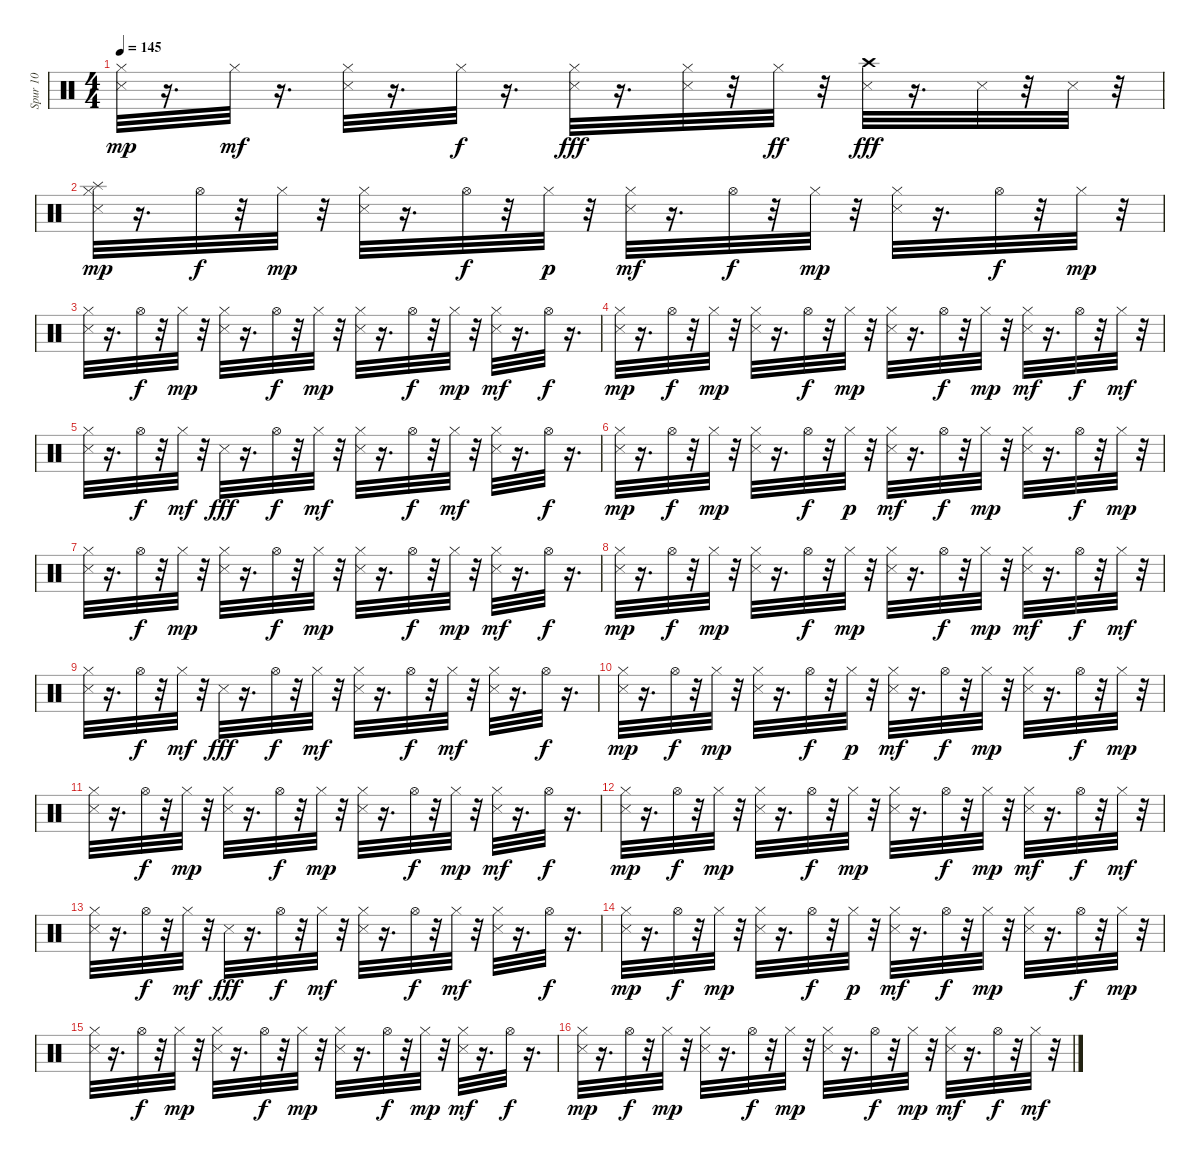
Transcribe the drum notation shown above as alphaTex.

\track ("Spur 10" "Spur 10") {instrument percussion}
\staff {score}
\articulation defaults
\ts (4 4)
\tempo 145
\clef neutral
\ks c
("Metronome (hit)" "Hi-Hat (closed)").32{dy mp} r.16{d} "Hi-Hat (closed)".32{dy mf} r.16{d} ("Metronome (hit)" "Hi-Hat (closed)").32 r.16{d} "Hi-Hat (closed)".32{dy f} r.16{d} ("Metronome (hit)" "Hi-Hat (closed)").32{dy fff} r.16{d} ("Metronome (hit)" "Hi-Hat (closed)").32 r.32 "Hi-Hat (closed)".32{dy ff} r.32 ("Metronome (hit)" "Crash high (hit)").32{dy fff} r.16{d} "Metronome (hit)".32 r.32 "Metronome (hit)".32 r.32 |
("Splash (hit)" "Metronome (hit)" "Hi-Hat (closed)").32{dy mp} r.16{d} "Hi-Hat (open)".32{dy f} r.32 "Hi-Hat (closed)".32{dy mp} r.32 ("Metronome (hit)" "Hi-Hat (closed)").32 r.16{d} "Hi-Hat (open)".32{dy f} r.32 "Hi-Hat (closed)".32{dy p} r.32 ("Metronome (hit)" "Hi-Hat (closed)").32{dy mf} r.16{d} "Hi-Hat (open)".32{dy f} r.32 "Hi-Hat (closed)".32{dy mp} r.32 ("Metronome (hit)" "Hi-Hat (closed)").32 r.16{d} "Hi-Hat (open)".32{dy f} r.32 "Hi-Hat (closed)".32{dy mp} r.32 |
("Metronome (hit)" "Hi-Hat (closed)").32 r.16{d} "Hi-Hat (open)".32{dy f} r.32 "Hi-Hat (closed)".32{dy mp} r.32 ("Metronome (hit)" "Hi-Hat (closed)").32 r.16{d} "Hi-Hat (open)".32{dy f} r.32 "Hi-Hat (closed)".32{dy mp} r.32 ("Metronome (hit)" "Hi-Hat (closed)").32 r.16{d} "Hi-Hat (open)".32{dy f} r.32 "Hi-Hat (closed)".32{dy mp} r.32 ("Metronome (hit)" "Hi-Hat (closed)").32{dy mf} r.16{d} "Hi-Hat (open)".32{dy f} r.16{d} |
("Metronome (hit)" "Hi-Hat (closed)").32{dy mp} r.16{d} "Hi-Hat (open)".32{dy f} r.32 "Hi-Hat (closed)".32{dy mp} r.32 ("Metronome (hit)" "Hi-Hat (closed)").32 r.16{d} "Hi-Hat (open)".32{dy f} r.32 "Hi-Hat (closed)".32{dy mp} r.32 ("Metronome (hit)" "Hi-Hat (closed)").32 r.16{d} "Hi-Hat (open)".32{dy f} r.32 "Hi-Hat (closed)".32{dy mp} r.32 ("Metronome (hit)" "Hi-Hat (closed)").32{dy mf} r.16{d} "Hi-Hat (open)".32{dy f} r.32 "Hi-Hat (closed)".32{dy mf} r.32 |
("Metronome (hit)" "Hi-Hat (closed)").32 r.16{d} "Hi-Hat (open)".32{dy f} r.32 "Hi-Hat (closed)".32{dy mf} r.32 "Metronome (hit)".32{dy fff} r.16{d} "Hi-Hat (open)".32{dy f} r.32 "Hi-Hat (closed)".32{dy mf} r.32 ("Metronome (hit)" "Hi-Hat (closed)").32 r.16{d} "Hi-Hat (open)".32{dy f} r.32 "Hi-Hat (closed)".32{dy mf} r.32 ("Metronome (hit)" "Hi-Hat (closed)").32 r.16{d} "Hi-Hat (open)".32{dy f} r.16{d} |
("Metronome (hit)" "Hi-Hat (closed)").32{dy mp} r.16{d} "Hi-Hat (open)".32{dy f} r.32 "Hi-Hat (closed)".32{dy mp} r.32 ("Metronome (hit)" "Hi-Hat (closed)").32 r.16{d} "Hi-Hat (open)".32{dy f} r.32 "Hi-Hat (closed)".32{dy p} r.32 ("Metronome (hit)" "Hi-Hat (closed)").32{dy mf} r.16{d} "Hi-Hat (open)".32{dy f} r.32 "Hi-Hat (closed)".32{dy mp} r.32 ("Metronome (hit)" "Hi-Hat (closed)").32 r.16{d} "Hi-Hat (open)".32{dy f} r.32 "Hi-Hat (closed)".32{dy mp} r.32 |
("Metronome (hit)" "Hi-Hat (closed)").32 r.16{d} "Hi-Hat (open)".32{dy f} r.32 "Hi-Hat (closed)".32{dy mp} r.32 ("Metronome (hit)" "Hi-Hat (closed)").32 r.16{d} "Hi-Hat (open)".32{dy f} r.32 "Hi-Hat (closed)".32{dy mp} r.32 ("Metronome (hit)" "Hi-Hat (closed)").32 r.16{d} "Hi-Hat (open)".32{dy f} r.32 "Hi-Hat (closed)".32{dy mp} r.32 ("Metronome (hit)" "Hi-Hat (closed)").32{dy mf} r.16{d} "Hi-Hat (open)".32{dy f} r.16{d} |
("Metronome (hit)" "Hi-Hat (closed)").32{dy mp} r.16{d} "Hi-Hat (open)".32{dy f} r.32 "Hi-Hat (closed)".32{dy mp} r.32 ("Metronome (hit)" "Hi-Hat (closed)").32 r.16{d} "Hi-Hat (open)".32{dy f} r.32 "Hi-Hat (closed)".32{dy mp} r.32 ("Metronome (hit)" "Hi-Hat (closed)").32 r.16{d} "Hi-Hat (open)".32{dy f} r.32 "Hi-Hat (closed)".32{dy mp} r.32 ("Metronome (hit)" "Hi-Hat (closed)").32{dy mf} r.16{d} "Hi-Hat (open)".32{dy f} r.32 "Hi-Hat (closed)".32{dy mf} r.32 |
("Metronome (hit)" "Hi-Hat (closed)").32 r.16{d} "Hi-Hat (open)".32{dy f} r.32 "Hi-Hat (closed)".32{dy mf} r.32 "Metronome (hit)".32{dy fff} r.16{d} "Hi-Hat (open)".32{dy f} r.32 "Hi-Hat (closed)".32{dy mf} r.32 ("Metronome (hit)" "Hi-Hat (closed)").32 r.16{d} "Hi-Hat (open)".32{dy f} r.32 "Hi-Hat (closed)".32{dy mf} r.32 ("Metronome (hit)" "Hi-Hat (closed)").32 r.16{d} "Hi-Hat (open)".32{dy f} r.16{d} |
("Metronome (hit)" "Hi-Hat (closed)").32{dy mp} r.16{d} "Hi-Hat (open)".32{dy f} r.32 "Hi-Hat (closed)".32{dy mp} r.32 ("Metronome (hit)" "Hi-Hat (closed)").32 r.16{d} "Hi-Hat (open)".32{dy f} r.32 "Hi-Hat (closed)".32{dy p} r.32 ("Metronome (hit)" "Hi-Hat (closed)").32{dy mf} r.16{d} "Hi-Hat (open)".32{dy f} r.32 "Hi-Hat (closed)".32{dy mp} r.32 ("Metronome (hit)" "Hi-Hat (closed)").32 r.16{d} "Hi-Hat (open)".32{dy f} r.32 "Hi-Hat (closed)".32{dy mp} r.32 |
("Metronome (hit)" "Hi-Hat (closed)").32 r.16{d} "Hi-Hat (open)".32{dy f} r.32 "Hi-Hat (closed)".32{dy mp} r.32 ("Metronome (hit)" "Hi-Hat (closed)").32 r.16{d} "Hi-Hat (open)".32{dy f} r.32 "Hi-Hat (closed)".32{dy mp} r.32 ("Metronome (hit)" "Hi-Hat (closed)").32 r.16{d} "Hi-Hat (open)".32{dy f} r.32 "Hi-Hat (closed)".32{dy mp} r.32 ("Metronome (hit)" "Hi-Hat (closed)").32{dy mf} r.16{d} "Hi-Hat (open)".32{dy f} r.16{d} |
("Metronome (hit)" "Hi-Hat (closed)").32{dy mp} r.16{d} "Hi-Hat (open)".32{dy f} r.32 "Hi-Hat (closed)".32{dy mp} r.32 ("Metronome (hit)" "Hi-Hat (closed)").32 r.16{d} "Hi-Hat (open)".32{dy f} r.32 "Hi-Hat (closed)".32{dy mp} r.32 ("Metronome (hit)" "Hi-Hat (closed)").32 r.16{d} "Hi-Hat (open)".32{dy f} r.32 "Hi-Hat (closed)".32{dy mp} r.32 ("Metronome (hit)" "Hi-Hat (closed)").32{dy mf} r.16{d} "Hi-Hat (open)".32{dy f} r.32 "Hi-Hat (closed)".32{dy mf} r.32 |
("Metronome (hit)" "Hi-Hat (closed)").32 r.16{d} "Hi-Hat (open)".32{dy f} r.32 "Hi-Hat (closed)".32{dy mf} r.32 "Metronome (hit)".32{dy fff} r.16{d} "Hi-Hat (open)".32{dy f} r.32 "Hi-Hat (closed)".32{dy mf} r.32 ("Metronome (hit)" "Hi-Hat (closed)").32 r.16{d} "Hi-Hat (open)".32{dy f} r.32 "Hi-Hat (closed)".32{dy mf} r.32 ("Metronome (hit)" "Hi-Hat (closed)").32 r.16{d} "Hi-Hat (open)".32{dy f} r.16{d} |
("Metronome (hit)" "Hi-Hat (closed)").32{dy mp} r.16{d} "Hi-Hat (open)".32{dy f} r.32 "Hi-Hat (closed)".32{dy mp} r.32 ("Metronome (hit)" "Hi-Hat (closed)").32 r.16{d} "Hi-Hat (open)".32{dy f} r.32 "Hi-Hat (closed)".32{dy p} r.32 ("Metronome (hit)" "Hi-Hat (closed)").32{dy mf} r.16{d} "Hi-Hat (open)".32{dy f} r.32 "Hi-Hat (closed)".32{dy mp} r.32 ("Metronome (hit)" "Hi-Hat (closed)").32 r.16{d} "Hi-Hat (open)".32{dy f} r.32 "Hi-Hat (closed)".32{dy mp} r.32 |
("Metronome (hit)" "Hi-Hat (closed)").32 r.16{d} "Hi-Hat (open)".32{dy f} r.32 "Hi-Hat (closed)".32{dy mp} r.32 ("Metronome (hit)" "Hi-Hat (closed)").32 r.16{d} "Hi-Hat (open)".32{dy f} r.32 "Hi-Hat (closed)".32{dy mp} r.32 ("Metronome (hit)" "Hi-Hat (closed)").32 r.16{d} "Hi-Hat (open)".32{dy f} r.32 "Hi-Hat (closed)".32{dy mp} r.32 ("Metronome (hit)" "Hi-Hat (closed)").32{dy mf} r.16{d} "Hi-Hat (open)".32{dy f} r.16{d} |
("Metronome (hit)" "Hi-Hat (closed)").32{dy mp} r.16{d} "Hi-Hat (open)".32{dy f} r.32 "Hi-Hat (closed)".32{dy mp} r.32 ("Metronome (hit)" "Hi-Hat (closed)").32 r.16{d} "Hi-Hat (open)".32{dy f} r.32 "Hi-Hat (closed)".32{dy mp} r.32 ("Metronome (hit)" "Hi-Hat (closed)").32 r.16{d} "Hi-Hat (open)".32{dy f} r.32 "Hi-Hat (closed)".32{dy mp} r.32 ("Metronome (hit)" "Hi-Hat (closed)").32{dy mf} r.16{d} "Hi-Hat (open)".32{dy f} r.32 "Hi-Hat (closed)".32{dy mf} r.32
